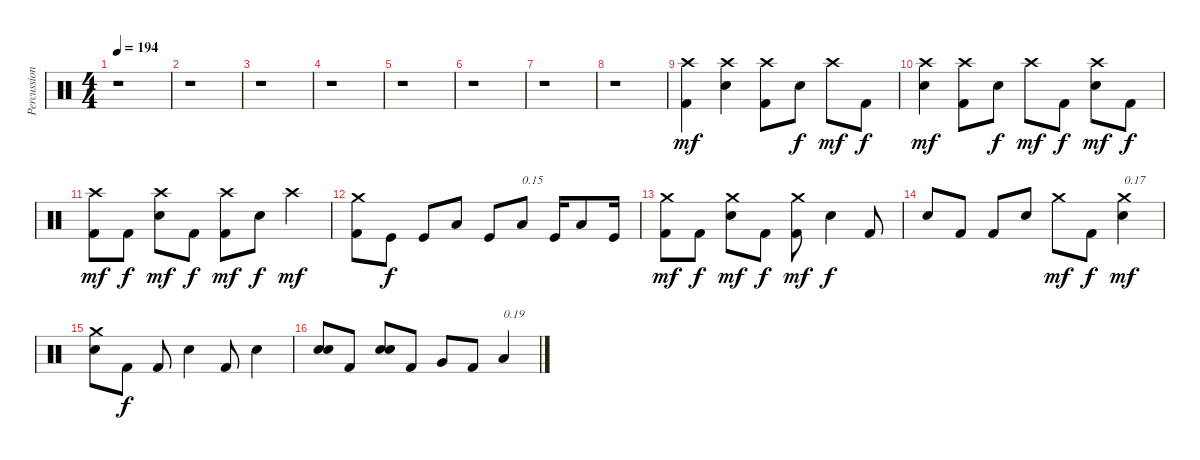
\track ("Percussions" "Percussion") {instrument percussion}
\staff {score}
\articulation defaults
\ts (4 4)
\tempo 194
\clef neutral
\ks c
r.1{dy mf} |
r.1 |
r.1 |
r.1 |
r.1 |
r.1 |
r.1 |
r.1 |
("Kick (hit) 2" "Crash high (hit)").4 ("Electric Snare (hit)" "Crash high (hit)").4 ("Kick (hit) 2" "Crash high (hit)").8 "Electric Snare (hit)".8{dy f} "Crash high (hit)".8{dy mf} "Kick (hit) 2".8{dy f} |
("Electric Snare (hit)" "Crash high (hit)").4{dy mf} ("Kick (hit) 2" "Crash high (hit)").8 "Electric Snare (hit)".8{dy f} "Crash high (hit)".8{dy mf} "Kick (hit) 2".8{dy f} ("Electric Snare (hit)" "Crash high (hit)").8{dy mf} "Kick (hit) 2".8{dy f} |
("Kick (hit) 2" "Crash high (hit)").8{dy mf} "Kick (hit) 2".8{dy f} ("Electric Snare (hit)" "Crash high (hit)").8{dy mf} "Kick (hit) 2".8{dy f} ("Kick (hit) 2" "Crash high (hit)").8{dy mf} "Electric Snare (hit)".8{dy f} "Crash high (hit)".4{dy mf} |
("Kick (hit) 2" "Crash medium (hit)").8 "Kick (hit)".8{dy f} "Kick (hit)".8 "Low Floor Tom (hit)".8 "Kick (hit)".8 "Low Floor Tom (hit)".8{txt "0.15"} "Kick (hit)".16 "Low Floor Tom (hit)".8 "Kick (hit)".16 |
("Kick (hit) 2" "Crash medium (hit)").8{dy mf} "Kick (hit) 2".8{dy f} ("Electric Snare (hit)" "Crash medium (hit)").8{dy mf} "Kick (hit) 2".8{dy f} ("Kick (hit) 2" "Crash medium (hit)").8{dy mf} "Electric Snare (hit)".4{dy f} "Kick (hit) 2".8 |
"Electric Snare (hit)".8 "Kick (hit) 2".8 "Kick (hit) 2".8 "Electric Snare (hit)".8 "Crash medium (hit)".8{dy mf} "Kick (hit) 2".8{dy f} ("Electric Snare (hit)" "Crash medium (hit)").4{txt "0.17" dy mf} |
("Electric Snare (hit)" "Crash medium (hit)").8 "Kick (hit) 2".8{dy f} "Kick (hit) 2".8 "Electric Snare (hit)".4 "Kick (hit) 2".8 "Electric Snare (hit)".4 |
("Electric Snare (hit)" "Electric Snare (hit)").8 "Kick (hit) 2".8 ("Electric Snare (hit)" "Electric Snare (hit)").8 "Kick (hit) 2".8 "Very Low Tom (hit)".8 "Kick (hit) 2".8 "Low Floor Tom (hit)".4{txt "0.19"}
